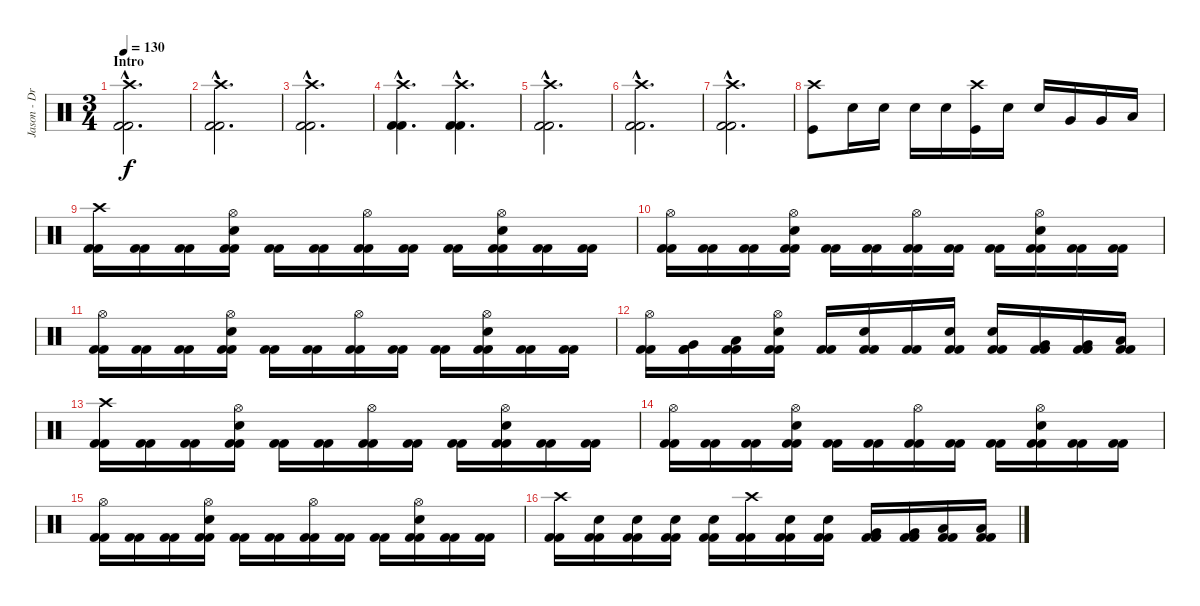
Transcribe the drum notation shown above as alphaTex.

\track ("Jason - Drums" "Jason - Dr") {instrument percussion}
\staff {score}
\articulation defaults
\ts (3 4)
\section ("" "Intro")
\tempo 130
\clef neutral
\ks c
("Crash high (hit)"{hac} "Kick (hit) 2"{hac} "Kick (hit) 2"{hac}).2{d dy f} |
("Crash high (hit)"{hac} "Kick (hit) 2"{hac} "Kick (hit) 2"{hac}).2{d} |
("Crash high (hit)"{hac} "Kick (hit) 2"{hac} "Kick (hit) 2"{hac}).2{d} |
("Crash high (hit)"{hac} "Kick (hit) 2"{hac} "Kick (hit) 2"{hac}).4{d} ("Crash high (hit)"{hac} "Kick (hit) 2"{hac} "Kick (hit) 2"{hac}).4{d} |
("Crash high (hit)"{hac} "Kick (hit) 2"{hac} "Kick (hit) 2"{hac}).2{d} |
("Crash high (hit)"{hac} "Kick (hit) 2"{hac} "Kick (hit) 2"{hac}).2{d} |
("Crash high (hit)"{hac} "Kick (hit) 2"{hac} "Kick (hit) 2"{hac}).2{d} |
("Crash high (hit)" "Kick (hit)").8 "Electric Snare (hit)".16 "Electric Snare (hit)".16 "Electric Snare (hit)".16 "Electric Snare (hit)".16 ("Crash high (hit)" "Kick (hit)").16 "Electric Snare (hit)".16 "Electric Snare (hit)".16 "Very Low Tom (hit)".16 "Very Low Tom (hit)".16 "Low Floor Tom (hit)".16 |
("Crash high (hit)" "Kick (hit) 2" "Kick (hit) 2").16 ("Kick (hit) 2" "Kick (hit) 2").16 ("Kick (hit) 2" "Kick (hit) 2").16 ("Hi-Hat (open)" "Electric Snare (hit)" "Kick (hit) 2" "Kick (hit) 2").16 ("Kick (hit) 2" "Kick (hit) 2").16 ("Kick (hit) 2" "Kick (hit) 2").16 ("Hi-Hat (open)" "Kick (hit) 2" "Kick (hit) 2").16 ("Kick (hit) 2" "Kick (hit) 2").16 ("Kick (hit) 2" "Kick (hit) 2").16 ("Hi-Hat (open)" "Electric Snare (hit)" "Kick (hit) 2" "Kick (hit) 2").16 ("Kick (hit) 2" "Kick (hit) 2").16 ("Kick (hit) 2" "Kick (hit) 2").16 |
("Hi-Hat (open)" "Kick (hit) 2" "Kick (hit) 2").16 ("Kick (hit) 2" "Kick (hit) 2").16 ("Kick (hit) 2" "Kick (hit) 2").16 ("Hi-Hat (open)" "Electric Snare (hit)" "Kick (hit) 2" "Kick (hit) 2").16 ("Kick (hit) 2" "Kick (hit) 2").16 ("Kick (hit) 2" "Kick (hit) 2").16 ("Hi-Hat (open)" "Kick (hit) 2" "Kick (hit) 2").16 ("Kick (hit) 2" "Kick (hit) 2").16 ("Kick (hit) 2" "Kick (hit) 2").16 ("Hi-Hat (open)" "Electric Snare (hit)" "Kick (hit) 2" "Kick (hit) 2").16 ("Kick (hit) 2" "Kick (hit) 2").16 ("Kick (hit) 2" "Kick (hit) 2").16 |
("Hi-Hat (open)" "Kick (hit) 2" "Kick (hit) 2").16 ("Kick (hit) 2" "Kick (hit) 2").16 ("Kick (hit) 2" "Kick (hit) 2").16 ("Hi-Hat (open)" "Electric Snare (hit)" "Kick (hit) 2" "Kick (hit) 2").16 ("Kick (hit) 2" "Kick (hit) 2").16 ("Kick (hit) 2" "Kick (hit) 2").16 ("Hi-Hat (open)" "Kick (hit) 2" "Kick (hit) 2").16 ("Kick (hit) 2" "Kick (hit) 2").16 ("Kick (hit) 2" "Kick (hit) 2").16 ("Hi-Hat (open)" "Electric Snare (hit)" "Kick (hit) 2" "Kick (hit) 2").16 ("Kick (hit) 2" "Kick (hit) 2").16 ("Kick (hit) 2" "Kick (hit) 2").16 |
("Hi-Hat (open)" "Kick (hit) 2" "Kick (hit) 2").16 ("Very Low Tom (hit)" "Kick (hit) 2" "Kick (hit) 2").16 ("Low Floor Tom (hit)" "Kick (hit) 2" "Kick (hit) 2").16 ("Hi-Hat (open)" "Electric Snare (hit)" "Kick (hit) 2" "Kick (hit) 2").16 ("Kick (hit) 2" "Kick (hit) 2").16 ("Electric Snare (hit)" "Kick (hit) 2" "Kick (hit) 2").16 ("Kick (hit) 2" "Kick (hit) 2").16 ("Electric Snare (hit)" "Kick (hit) 2" "Kick (hit) 2").16 ("Electric Snare (hit)" "Kick (hit) 2" "Kick (hit) 2").16 ("Very Low Tom (hit)" "Kick (hit) 2" "Kick (hit) 2").16 ("Very Low Tom (hit)" "Kick (hit) 2" "Kick (hit) 2").16 ("Low Floor Tom (hit)" "Kick (hit) 2" "Kick (hit) 2").16 |
("Crash high (hit)" "Kick (hit) 2" "Kick (hit) 2").16 ("Kick (hit) 2" "Kick (hit) 2").16 ("Kick (hit) 2" "Kick (hit) 2").16 ("Hi-Hat (open)" "Electric Snare (hit)" "Kick (hit) 2" "Kick (hit) 2").16 ("Kick (hit) 2" "Kick (hit) 2").16 ("Kick (hit) 2" "Kick (hit) 2").16 ("Hi-Hat (open)" "Kick (hit) 2" "Kick (hit) 2").16 ("Kick (hit) 2" "Kick (hit) 2").16 ("Kick (hit) 2" "Kick (hit) 2").16 ("Hi-Hat (open)" "Electric Snare (hit)" "Kick (hit) 2" "Kick (hit) 2").16 ("Kick (hit) 2" "Kick (hit) 2").16 ("Kick (hit) 2" "Kick (hit) 2").16 |
("Hi-Hat (open)" "Kick (hit) 2" "Kick (hit) 2").16 ("Kick (hit) 2" "Kick (hit) 2").16 ("Kick (hit) 2" "Kick (hit) 2").16 ("Hi-Hat (open)" "Electric Snare (hit)" "Kick (hit) 2" "Kick (hit) 2").16 ("Kick (hit) 2" "Kick (hit) 2").16 ("Kick (hit) 2" "Kick (hit) 2").16 ("Hi-Hat (open)" "Kick (hit) 2" "Kick (hit) 2").16 ("Kick (hit) 2" "Kick (hit) 2").16 ("Kick (hit) 2" "Kick (hit) 2").16 ("Hi-Hat (open)" "Electric Snare (hit)" "Kick (hit) 2" "Kick (hit) 2").16 ("Kick (hit) 2" "Kick (hit) 2").16 ("Kick (hit) 2" "Kick (hit) 2").16 |
("Hi-Hat (open)" "Kick (hit) 2" "Kick (hit) 2").16 ("Kick (hit) 2" "Kick (hit) 2").16 ("Kick (hit) 2" "Kick (hit) 2").16 ("Hi-Hat (open)" "Electric Snare (hit)" "Kick (hit) 2" "Kick (hit) 2").16 ("Kick (hit) 2" "Kick (hit) 2").16 ("Kick (hit) 2" "Kick (hit) 2").16 ("Hi-Hat (open)" "Kick (hit) 2" "Kick (hit) 2").16 ("Kick (hit) 2" "Kick (hit) 2").16 ("Kick (hit) 2" "Kick (hit) 2").16 ("Hi-Hat (open)" "Electric Snare (hit)" "Kick (hit) 2" "Kick (hit) 2").16 ("Kick (hit) 2" "Kick (hit) 2").16 ("Kick (hit) 2" "Kick (hit) 2").16 |
("Crash high (hit)" "Kick (hit) 2" "Kick (hit) 2").16 ("Electric Snare (hit)" "Kick (hit) 2" "Kick (hit) 2").16 ("Electric Snare (hit)" "Kick (hit) 2" "Kick (hit) 2").16 ("Electric Snare (hit)" "Kick (hit) 2" "Kick (hit) 2").16 ("Electric Snare (hit)" "Kick (hit) 2" "Kick (hit) 2").16 ("Crash high (hit)" "Kick (hit) 2" "Kick (hit) 2").16 ("Electric Snare (hit)" "Kick (hit) 2" "Kick (hit) 2").16 ("Electric Snare (hit)" "Kick (hit) 2" "Kick (hit) 2").16 ("Very Low Tom (hit)" "Kick (hit) 2" "Kick (hit) 2").16 ("Very Low Tom (hit)" "Kick (hit) 2" "Kick (hit) 2").16 ("Low Floor Tom (hit)" "Kick (hit) 2" "Kick (hit) 2").16 ("Low Floor Tom (hit)" "Kick (hit) 2" "Kick (hit) 2").16
